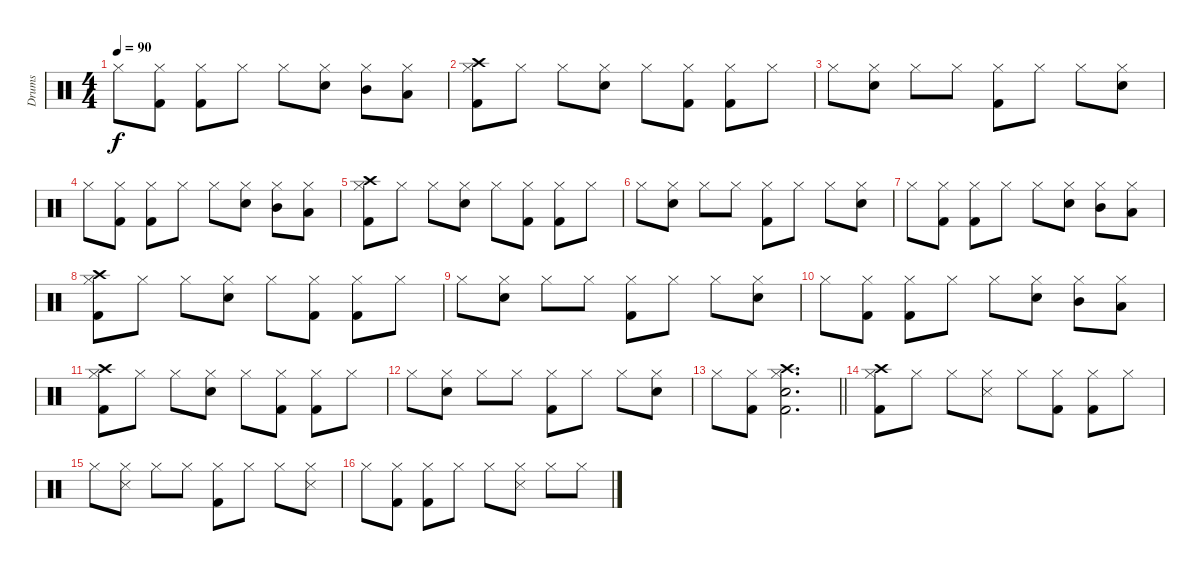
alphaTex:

\track ("Drums" "Drums") {instrument percussion}
\staff {score}
\articulation defaults
\ts (4 4)
\tempo 90
\clef neutral
\ks c "Hi-Hat (closed)".8{dy f}
("Hi-Hat (closed)" "Kick (hit) 2").8 ("Hi-Hat (closed)" "Kick (hit) 2").8 "Hi-Hat (closed)".8 "Hi-Hat (closed)".8 ("Hi-Hat (closed)" "Electric Snare (hit)").8 ("Hi-Hat (closed)" "Mid Tom (hit)").8 ("Hi-Hat (closed)" "Low Tom (hit)").8 |
("Hi-Hat (closed)" "Kick (hit) 2" "Crash high (hit)").8 "Hi-Hat (closed)".8 "Hi-Hat (closed)".8 ("Hi-Hat (closed)" "Electric Snare (hit)").8 "Hi-Hat (closed)".8 ("Hi-Hat (closed)" "Kick (hit) 2").8 ("Hi-Hat (closed)" "Kick (hit) 2").8 "Hi-Hat (closed)".8 |
"Hi-Hat (closed)".8 ("Hi-Hat (closed)" "Electric Snare (hit)").8 "Hi-Hat (closed)".8 "Hi-Hat (closed)".8 ("Hi-Hat (closed)" "Kick (hit) 2").8 "Hi-Hat (closed)".8 "Hi-Hat (closed)".8 ("Hi-Hat (closed)" "Electric Snare (hit)").8 |
"Hi-Hat (closed)".8 ("Hi-Hat (closed)" "Kick (hit) 2").8 ("Hi-Hat (closed)" "Kick (hit) 2").8 "Hi-Hat (closed)".8 "Hi-Hat (closed)".8 ("Hi-Hat (closed)" "Electric Snare (hit)").8 ("Hi-Hat (closed)" "Mid Tom (hit)").8 ("Hi-Hat (closed)" "Low Tom (hit)").8 |
("Hi-Hat (closed)" "Kick (hit) 2" "Crash high (hit)").8 "Hi-Hat (closed)".8 "Hi-Hat (closed)".8 ("Hi-Hat (closed)" "Electric Snare (hit)").8 "Hi-Hat (closed)".8 ("Hi-Hat (closed)" "Kick (hit) 2").8 ("Hi-Hat (closed)" "Kick (hit) 2").8 "Hi-Hat (closed)".8 |
"Hi-Hat (closed)".8 ("Hi-Hat (closed)" "Electric Snare (hit)").8 "Hi-Hat (closed)".8 "Hi-Hat (closed)".8 ("Hi-Hat (closed)" "Kick (hit) 2").8 "Hi-Hat (closed)".8 "Hi-Hat (closed)".8 ("Hi-Hat (closed)" "Electric Snare (hit)").8 |
"Hi-Hat (closed)".8 ("Hi-Hat (closed)" "Kick (hit) 2").8 ("Hi-Hat (closed)" "Kick (hit) 2").8 "Hi-Hat (closed)".8 "Hi-Hat (closed)".8 ("Hi-Hat (closed)" "Electric Snare (hit)").8 ("Hi-Hat (closed)" "Mid Tom (hit)").8 ("Hi-Hat (closed)" "Low Tom (hit)").8 |
("Hi-Hat (closed)" "Kick (hit) 2" "Crash high (hit)").8 "Hi-Hat (closed)".8 "Hi-Hat (closed)".8 ("Hi-Hat (closed)" "Electric Snare (hit)").8 "Hi-Hat (closed)".8 ("Hi-Hat (closed)" "Kick (hit) 2").8 ("Hi-Hat (closed)" "Kick (hit) 2").8 "Hi-Hat (closed)".8 |
"Hi-Hat (closed)".8 ("Hi-Hat (closed)" "Electric Snare (hit)").8 "Hi-Hat (closed)".8 "Hi-Hat (closed)".8 ("Hi-Hat (closed)" "Kick (hit) 2").8 "Hi-Hat (closed)".8 "Hi-Hat (closed)".8 ("Hi-Hat (closed)" "Electric Snare (hit)").8 |
"Hi-Hat (closed)".8 ("Hi-Hat (closed)" "Kick (hit) 2").8 ("Hi-Hat (closed)" "Kick (hit) 2").8 "Hi-Hat (closed)".8 "Hi-Hat (closed)".8 ("Hi-Hat (closed)" "Electric Snare (hit)").8 ("Hi-Hat (closed)" "Mid Tom (hit)").8 ("Hi-Hat (closed)" "Low Tom (hit)").8 |
("Hi-Hat (closed)" "Kick (hit) 2" "Crash high (hit)").8 "Hi-Hat (closed)".8 "Hi-Hat (closed)".8 ("Hi-Hat (closed)" "Electric Snare (hit)").8 "Hi-Hat (closed)".8 ("Hi-Hat (closed)" "Kick (hit) 2").8 ("Hi-Hat (closed)" "Kick (hit) 2").8 "Hi-Hat (closed)".8 |
"Hi-Hat (closed)".8 ("Hi-Hat (closed)" "Electric Snare (hit)").8 "Hi-Hat (closed)".8 "Hi-Hat (closed)".8 ("Hi-Hat (closed)" "Kick (hit) 2").8 "Hi-Hat (closed)".8 "Hi-Hat (closed)".8 ("Hi-Hat (closed)" "Electric Snare (hit)").8 |
\barLineRight lightlight "Hi-Hat (closed)".8
("Hi-Hat (closed)" "Kick (hit) 2").8 ("Hi-Hat (closed)" "Kick (hit) 2" "Electric Snare (hit)" "Crash high (hit)").2{d} |
("Hi-Hat (closed)" "Kick (hit) 2" "Crash high (hit)").8 "Hi-Hat (closed)".8 "Hi-Hat (closed)".8 ("Hi-Hat (closed)" "Metronome (hit)").8 "Hi-Hat (closed)".8 ("Hi-Hat (closed)" "Kick (hit) 2").8 ("Hi-Hat (closed)" "Kick (hit) 2").8 "Hi-Hat (closed)".8 |
"Hi-Hat (closed)".8 ("Hi-Hat (closed)" "Metronome (hit)").8 "Hi-Hat (closed)".8 "Hi-Hat (closed)".8 ("Hi-Hat (closed)" "Kick (hit) 2").8 "Hi-Hat (closed)".8 "Hi-Hat (closed)".8 ("Hi-Hat (closed)" "Metronome (hit)").8 |
"Hi-Hat (closed)".8 ("Hi-Hat (closed)" "Kick (hit) 2").8 ("Hi-Hat (closed)" "Kick (hit) 2").8 "Hi-Hat (closed)".8 "Hi-Hat (closed)".8 ("Hi-Hat (closed)" "Metronome (hit)").8 "Hi-Hat (closed)".8 "Hi-Hat (closed)".8
